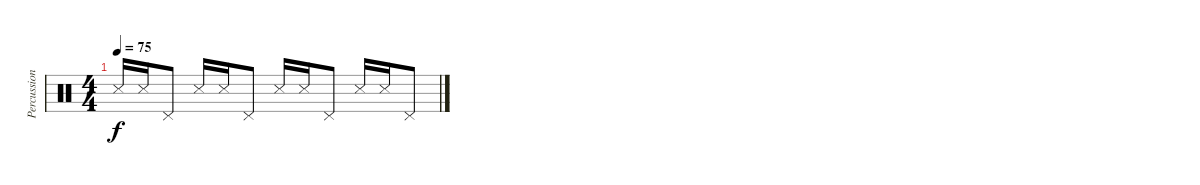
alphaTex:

\track ("Percussions" "Percussion") {instrument percussion}
\staff {score}
\articulation defaults
\ts (4 4)
\tempo 75
\clef neutral
\ks c "Snare (side stick) 3".16{dy f} "Snare (side stick) 3".16 "Pedal Hi-Hat (hit)".8 "Snare (side stick) 3".16 "Snare (side stick) 3".16 "Pedal Hi-Hat (hit)".8 "Snare (side stick) 3".16 "Snare (side stick) 3".16 "Pedal Hi-Hat (hit)".8 "Snare (side stick) 3".16 "Snare (side stick) 3".16 "Pedal Hi-Hat (hit)".8
